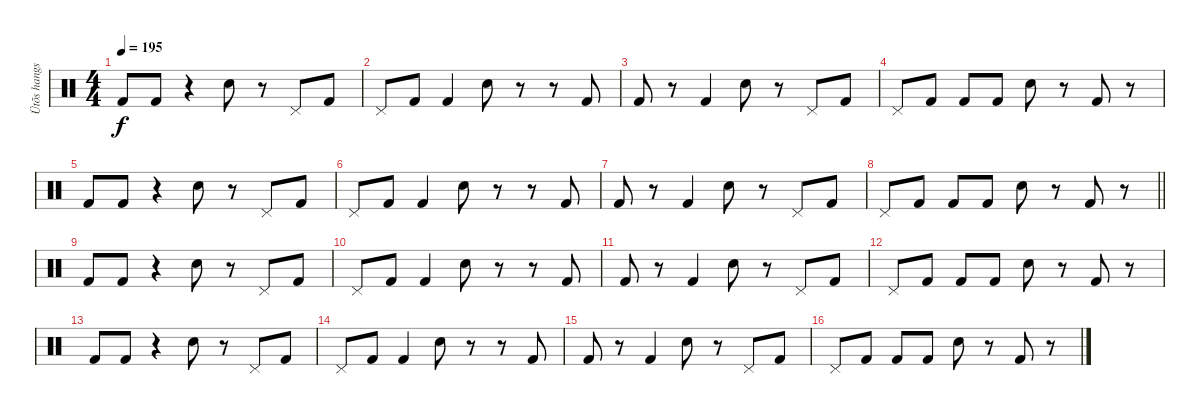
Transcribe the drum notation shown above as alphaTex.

\track ("Ütõs hangszer" "Ütõs hangs") {instrument percussion}
\staff {score}
\articulation defaults
\ts (4 4)
\tempo 195
\clef neutral
\ks c "Kick (hit) 2".8{dy f} "Kick (hit) 2".8
r.4 "Electric Snare (hit)".8 r.8 "Pedal Hi-Hat (hit)".8 "Kick (hit) 2".8 |
"Pedal Hi-Hat (hit)".8 "Kick (hit) 2".8 "Kick (hit) 2".4 "Electric Snare (hit)".8 r.8 r.8 "Kick (hit) 2".8 |
"Kick (hit) 2".8 r.8 "Kick (hit) 2".4 "Electric Snare (hit)".8 r.8 "Pedal Hi-Hat (hit)".8 "Kick (hit) 2".8 |
"Pedal Hi-Hat (hit)".8 "Kick (hit) 2".8 "Kick (hit) 2".8 "Kick (hit) 2".8 "Electric Snare (hit)".8 r.8 "Kick (hit) 2".8 r.8 |
"Kick (hit) 2".8 "Kick (hit) 2".8 r.4 "Electric Snare (hit)".8 r.8 "Pedal Hi-Hat (hit)".8 "Kick (hit) 2".8 |
"Pedal Hi-Hat (hit)".8 "Kick (hit) 2".8 "Kick (hit) 2".4 "Electric Snare (hit)".8 r.8 r.8 "Kick (hit) 2".8 |
"Kick (hit) 2".8 r.8 "Kick (hit) 2".4 "Electric Snare (hit)".8 r.8 "Pedal Hi-Hat (hit)".8 "Kick (hit) 2".8 |
\barLineRight lightlight "Pedal Hi-Hat (hit)".8 "Kick (hit) 2".8 "Kick (hit) 2".8 "Kick (hit) 2".8 "Electric Snare (hit)".8
r.8 "Kick (hit) 2".8 r.8 |
"Kick (hit) 2".8 "Kick (hit) 2".8 r.4 "Electric Snare (hit)".8 r.8 "Pedal Hi-Hat (hit)".8 "Kick (hit) 2".8 |
"Pedal Hi-Hat (hit)".8 "Kick (hit) 2".8 "Kick (hit) 2".4 "Electric Snare (hit)".8 r.8 r.8 "Kick (hit) 2".8 |
"Kick (hit) 2".8 r.8 "Kick (hit) 2".4 "Electric Snare (hit)".8 r.8 "Pedal Hi-Hat (hit)".8 "Kick (hit) 2".8 |
"Pedal Hi-Hat (hit)".8 "Kick (hit) 2".8 "Kick (hit) 2".8 "Kick (hit) 2".8 "Electric Snare (hit)".8 r.8 "Kick (hit) 2".8 r.8 |
"Kick (hit) 2".8 "Kick (hit) 2".8 r.4 "Electric Snare (hit)".8 r.8 "Pedal Hi-Hat (hit)".8 "Kick (hit) 2".8 |
"Pedal Hi-Hat (hit)".8 "Kick (hit) 2".8 "Kick (hit) 2".4 "Electric Snare (hit)".8 r.8 r.8 "Kick (hit) 2".8 |
"Kick (hit) 2".8 r.8 "Kick (hit) 2".4 "Electric Snare (hit)".8 r.8 "Pedal Hi-Hat (hit)".8 "Kick (hit) 2".8 |
"Pedal Hi-Hat (hit)".8 "Kick (hit) 2".8 "Kick (hit) 2".8 "Kick (hit) 2".8 "Electric Snare (hit)".8 r.8 "Kick (hit) 2".8 r.8
